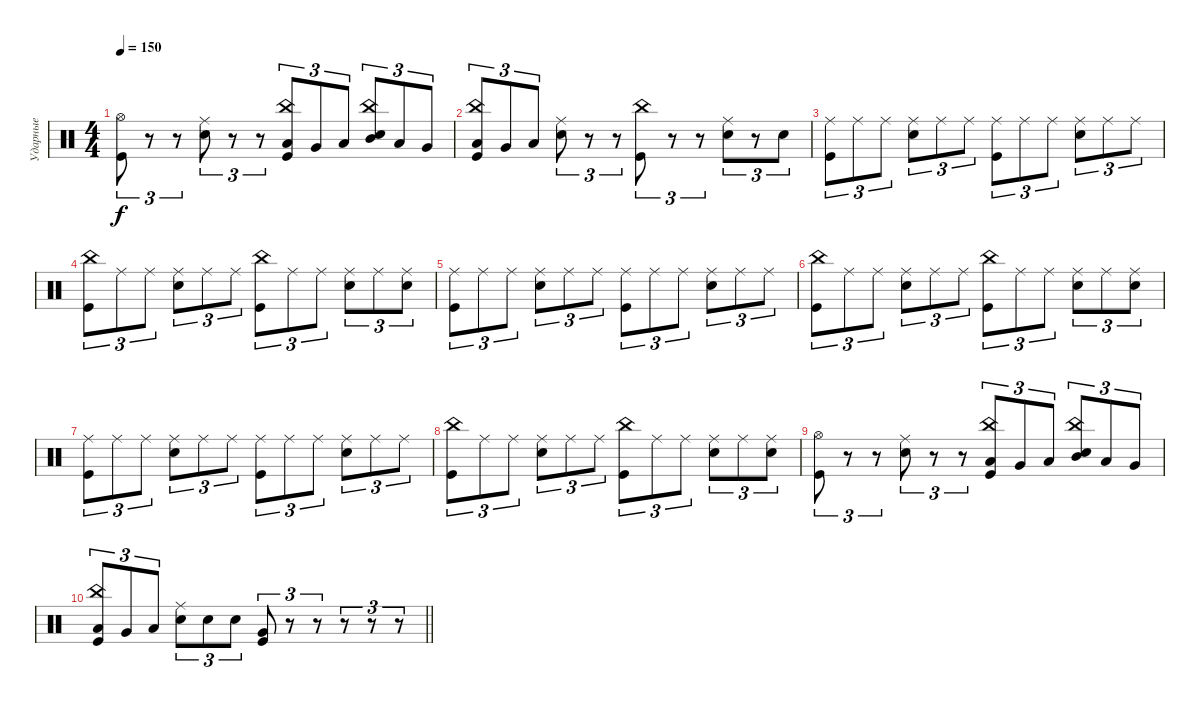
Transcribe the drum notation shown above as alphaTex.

\track ("Ударные" "Ударные") {instrument percussion}
\staff {score}
\articulation defaults
\ts (4 4)
\tempo 150
\clef neutral
\ks c
("Hi-Hat (open)" "Kick (hit)").8{tu (3 2) dy f} r.8{tu (3 2)} r.8{tu (3 2)} ("Ride (middle)" "Electric Snare (hit)").8{tu (3 2)} r.8{tu (3 2)} r.8{tu (3 2)} ("China (hit)" "Low Floor Tom (hit)" "Kick (hit)").8{tu (3 2)} "Very Low Tom (hit)".8{tu (3 2)} "Low Tom (hit)".8{tu (3 2)} ("China (hit)" "Mid Tom (hit)" "Electric Snare (hit)").8{tu (3 2)} "Low Tom (hit)".8{tu (3 2)} "Very Low Tom (hit)".8{tu (3 2)} |
("China (hit)" "Low Floor Tom (hit)" "Kick (hit)").8{tu (3 2)} "Very Low Tom (hit)".8{tu (3 2)} "Low Floor Tom (hit)".8{tu (3 2)} ("Ride (middle)" "Electric Snare (hit)").8{tu (3 2)} r.8{tu (3 2)} r.8{tu (3 2)} ("China (hit)" "Kick (hit)").8{tu (3 2)} r.8{tu (3 2)} r.8{tu (3 2)} ("Ride (middle)" "Electric Snare (hit)").8{tu (3 2)} r.8{tu (3 2)} "Electric Snare (hit)".8{tu (3 2)} |
("Ride (middle)" "Kick (hit)").8{tu (3 2)} "Ride (middle)".8{tu (3 2)} "Ride (middle)".8{tu (3 2)} ("Ride (middle)" "Electric Snare (hit)").8{tu (3 2)} "Ride (middle)".8{tu (3 2)} "Ride (middle)".8{tu (3 2)} ("Ride (middle)" "Kick (hit)").8{tu (3 2)} "Ride (middle)".8{tu (3 2)} "Ride (middle)".8{tu (3 2)} ("Ride (middle)" "Electric Snare (hit)").8{tu (3 2)} "Ride (middle)".8{tu (3 2)} "Ride (middle)".8{tu (3 2)} |
("China (hit)" "Kick (hit)").8{tu (3 2)} "Ride (middle)".8{tu (3 2)} "Ride (middle)".8{tu (3 2)} ("Ride (middle)" "Electric Snare (hit)").8{tu (3 2)} "Ride (middle)".8{tu (3 2)} "Ride (middle)".8{tu (3 2)} ("China (hit)" "Kick (hit)").8{tu (3 2)} "Ride (middle)".8{tu (3 2)} "Ride (middle)".8{tu (3 2)} ("Ride (middle)" "Electric Snare (hit)").8{tu (3 2)} "Ride (middle)".8{tu (3 2)} ("Ride (middle)" "Electric Snare (hit)").8{tu (3 2)} |
("Ride (middle)" "Kick (hit)").8{tu (3 2)} "Ride (middle)".8{tu (3 2)} "Ride (middle)".8{tu (3 2)} ("Ride (middle)" "Electric Snare (hit)").8{tu (3 2)} "Ride (middle)".8{tu (3 2)} "Ride (middle)".8{tu (3 2)} ("Ride (middle)" "Kick (hit)").8{tu (3 2)} "Ride (middle)".8{tu (3 2)} "Ride (middle)".8{tu (3 2)} ("Ride (middle)" "Electric Snare (hit)").8{tu (3 2)} "Ride (middle)".8{tu (3 2)} "Ride (middle)".8{tu (3 2)} |
("China (hit)" "Kick (hit)").8{tu (3 2)} "Ride (middle)".8{tu (3 2)} "Ride (middle)".8{tu (3 2)} ("Ride (middle)" "Electric Snare (hit)").8{tu (3 2)} "Ride (middle)".8{tu (3 2)} "Ride (middle)".8{tu (3 2)} ("China (hit)" "Kick (hit)").8{tu (3 2)} "Ride (middle)".8{tu (3 2)} "Ride (middle)".8{tu (3 2)} ("Ride (middle)" "Electric Snare (hit)").8{tu (3 2)} "Ride (middle)".8{tu (3 2)} ("Ride (middle)" "Electric Snare (hit)").8{tu (3 2)} |
("Ride (middle)" "Kick (hit)").8{tu (3 2)} "Ride (middle)".8{tu (3 2)} "Ride (middle)".8{tu (3 2)} ("Ride (middle)" "Electric Snare (hit)").8{tu (3 2)} "Ride (middle)".8{tu (3 2)} "Ride (middle)".8{tu (3 2)} ("Ride (middle)" "Kick (hit)").8{tu (3 2)} "Ride (middle)".8{tu (3 2)} "Ride (middle)".8{tu (3 2)} ("Ride (middle)" "Electric Snare (hit)").8{tu (3 2)} "Ride (middle)".8{tu (3 2)} "Ride (middle)".8{tu (3 2)} |
("China (hit)" "Kick (hit)").8{tu (3 2)} "Ride (middle)".8{tu (3 2)} "Ride (middle)".8{tu (3 2)} ("Ride (middle)" "Electric Snare (hit)").8{tu (3 2)} "Ride (middle)".8{tu (3 2)} "Ride (middle)".8{tu (3 2)} ("China (hit)" "Kick (hit)").8{tu (3 2)} "Ride (middle)".8{tu (3 2)} "Ride (middle)".8{tu (3 2)} ("Ride (middle)" "Electric Snare (hit)").8{tu (3 2)} "Ride (middle)".8{tu (3 2)} ("Ride (middle)" "Electric Snare (hit)").8{tu (3 2)} |
("Hi-Hat (open)" "Kick (hit)").8{tu (3 2)} r.8{tu (3 2)} r.8{tu (3 2)} ("Ride (middle)" "Electric Snare (hit)").8{tu (3 2)} r.8{tu (3 2)} r.8{tu (3 2)} ("China (hit)" "Low Floor Tom (hit)" "Kick (hit)").8{tu (3 2)} "Very Low Tom (hit)".8{tu (3 2)} "Low Tom (hit)".8{tu (3 2)} ("China (hit)" "Mid Tom (hit)" "Electric Snare (hit)").8{tu (3 2)} "Low Tom (hit)".8{tu (3 2)} "Very Low Tom (hit)".8{tu (3 2)} |
\barLineRight lightlight
("China (hit)" "Low Floor Tom (hit)" "Kick (hit)").8{tu (3 2)} "Very Low Tom (hit)".8{tu (3 2)} "Low Floor Tom (hit)".8{tu (3 2)} ("Ride (middle)" "Electric Snare (hit)").8{tu (3 2)} "Electric Snare (hit)".8{tu (3 2)} "Electric Snare (hit)".8{tu (3 2)} ("Very Low Tom (hit)" "Kick (hit)").8{tu (3 2)} r.8{tu (3 2)} r.8{tu (3 2)} r.8{tu (3 2)} r.8{tu (3 2)} r.8{tu (3 2)}
